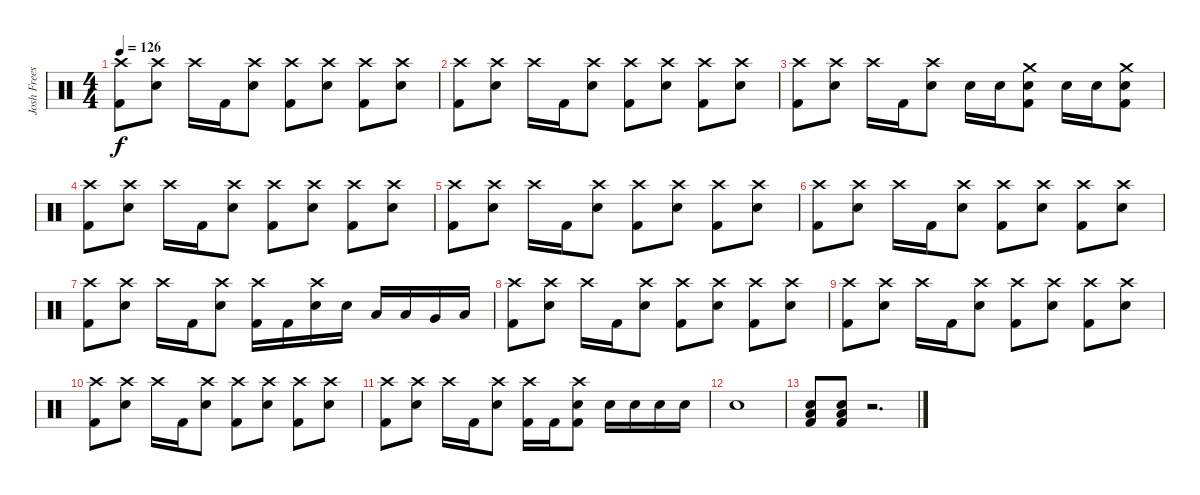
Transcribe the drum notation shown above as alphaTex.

\track ("Josh Freese" "Josh Frees") {instrument percussion}
\staff {score}
\articulation defaults
\ts (4 4)
\tempo 126
\clef neutral
\ks c
("Crash high (hit)" "Kick (hit) 2").8{dy f} ("Crash high (hit)" "Snare (hit) 2").8 "Crash high (hit)".16 "Kick (hit) 2".16 ("Crash high (hit)" "Snare (hit) 2").8 ("Crash high (hit)" "Kick (hit) 2").8 ("Crash high (hit)" "Snare (hit) 2").8 ("Crash high (hit)" "Kick (hit) 2").8 ("Crash high (hit)" "Snare (hit) 2").8 |
("Crash high (hit)" "Kick (hit) 2").8 ("Crash high (hit)" "Snare (hit) 2").8 "Crash high (hit)".16 "Kick (hit) 2".16 ("Crash high (hit)" "Snare (hit) 2").8 ("Crash high (hit)" "Kick (hit) 2").8 ("Crash high (hit)" "Snare (hit) 2").8 ("Crash high (hit)" "Kick (hit) 2").8 ("Crash high (hit)" "Snare (hit) 2").8 |
("Crash high (hit)" "Kick (hit) 2").8 ("Crash high (hit)" "Snare (hit) 2").8 "Crash high (hit)".16 "Kick (hit) 2".16 ("Crash high (hit)" "Snare (hit) 2").8 "Snare (hit) 2".16 "Snare (hit) 2".16 ("Crash medium (hit)" "Snare (hit) 2" "Kick (hit) 2").8 "Snare (hit) 2".16 "Snare (hit) 2".16 ("Crash medium (hit)" "Snare (hit) 2" "Kick (hit) 2").8 |
("Crash high (hit)" "Kick (hit) 2").8 ("Crash high (hit)" "Snare (hit) 2").8 "Crash high (hit)".16 "Kick (hit) 2".16 ("Crash high (hit)" "Snare (hit) 2").8 ("Crash high (hit)" "Kick (hit) 2").8 ("Crash high (hit)" "Snare (hit) 2").8 ("Crash high (hit)" "Kick (hit) 2").8 ("Crash high (hit)" "Snare (hit) 2").8 |
("Crash high (hit)" "Kick (hit) 2").8 ("Crash high (hit)" "Snare (hit) 2").8 "Crash high (hit)".16 "Kick (hit) 2".16 ("Crash high (hit)" "Snare (hit) 2").8 ("Crash high (hit)" "Kick (hit) 2").8 ("Crash high (hit)" "Snare (hit) 2").8 ("Crash high (hit)" "Kick (hit) 2").8 ("Crash high (hit)" "Snare (hit) 2").8 |
("Crash high (hit)" "Kick (hit) 2").8 ("Crash high (hit)" "Snare (hit) 2").8 "Crash high (hit)".16 "Kick (hit) 2".16 ("Crash high (hit)" "Snare (hit) 2").8 ("Crash high (hit)" "Kick (hit) 2").8 ("Crash high (hit)" "Snare (hit) 2").8 ("Crash high (hit)" "Kick (hit) 2").8 ("Crash high (hit)" "Snare (hit) 2").8 |
("Crash high (hit)" "Kick (hit) 2").8 ("Crash high (hit)" "Snare (hit) 2").8 "Crash high (hit)".16 "Kick (hit) 2".16 ("Crash high (hit)" "Snare (hit) 2").8 ("Crash high (hit)" "Kick (hit) 2").16 "Kick (hit) 2".16 ("Crash high (hit)" "Snare (hit) 2").16 "Snare (hit) 2".16 "Low Tom (hit)".16 "Low Tom (hit)".16 "Very Low Tom (hit)".16 "Low Floor Tom (hit)".16 |
("Crash high (hit)" "Kick (hit) 2").8 ("Crash high (hit)" "Snare (hit) 2").8 "Crash high (hit)".16 "Kick (hit) 2".16 ("Crash high (hit)" "Snare (hit) 2").8 ("Crash high (hit)" "Kick (hit) 2").8 ("Crash high (hit)" "Snare (hit) 2").8 ("Crash high (hit)" "Kick (hit) 2").8 ("Crash high (hit)" "Snare (hit) 2").8 |
("Crash high (hit)" "Kick (hit) 2").8 ("Crash high (hit)" "Snare (hit) 2").8 "Crash high (hit)".16 "Kick (hit) 2".16 ("Crash high (hit)" "Snare (hit) 2").8 ("Crash high (hit)" "Kick (hit) 2").8 ("Crash high (hit)" "Snare (hit) 2").8 ("Crash high (hit)" "Kick (hit) 2").8 ("Crash high (hit)" "Snare (hit) 2").8 |
("Crash high (hit)" "Kick (hit) 2").8 ("Crash high (hit)" "Snare (hit) 2").8 "Crash high (hit)".16 "Kick (hit) 2".16 ("Crash high (hit)" "Snare (hit) 2").8 ("Crash high (hit)" "Kick (hit) 2").8 ("Crash high (hit)" "Snare (hit) 2").8 ("Crash high (hit)" "Kick (hit) 2").8 ("Crash high (hit)" "Snare (hit) 2").8 |
("Crash high (hit)" "Kick (hit) 2").8 ("Crash high (hit)" "Snare (hit) 2").8 "Crash high (hit)".16 "Kick (hit) 2".16 ("Crash high (hit)" "Snare (hit) 2").8 ("Crash high (hit)" "Kick (hit) 2").16 "Kick (hit) 2".16 ("Crash high (hit)" "Snare (hit) 2" "Kick (hit) 2").8 "Snare (hit) 2".16 "Snare (hit) 2".16 "Snare (hit) 2".16 "Snare (hit) 2".16 |
"Snare (hit) 2".1 |
("Low Floor Tom (hit)" "Snare (hit) 2" "Kick (hit) 2").8 ("Low Floor Tom (hit)" "Snare (hit) 2" "Kick (hit) 2").8 r.2{d}
